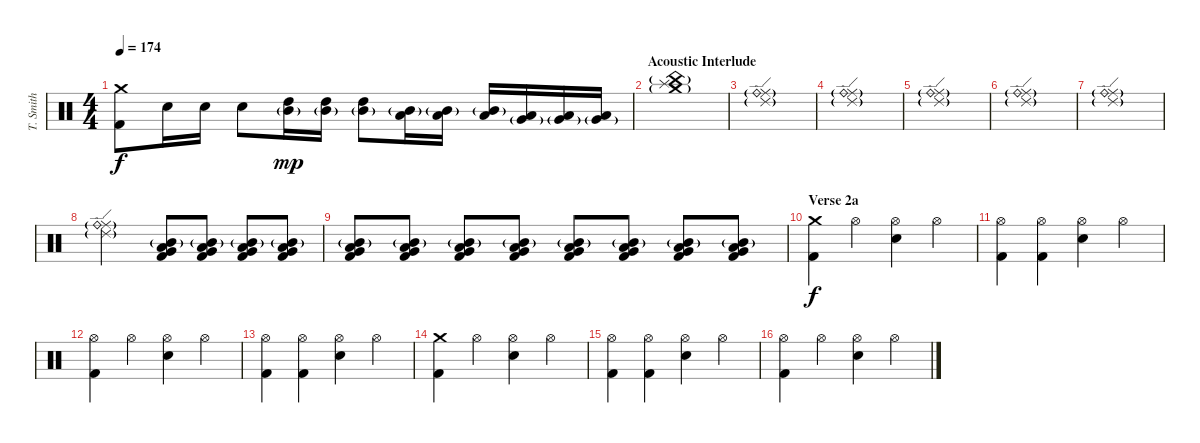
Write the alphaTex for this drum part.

\track ("T. Smith" "T. Smith") {instrument percussion}
\staff {score}
\articulation defaults
\ts (4 4)
\tempo 174
\clef neutral
\ks c
("Crash medium (hit)" "Kick (hit) 2").8{dy f} "Electric Snare (hit)".16 "Electric Snare (hit)".16 "Electric Snare (hit)".8 ("Mid Tom (hit)"{g} "High Tom (hit)").16{dy mp} ("Mid Tom (hit)"{g} "High Tom (hit)").16 ("Mid Tom (hit)"{g} "High Tom (hit)").8 ("Low Tom (hit)" "Mid Tom (hit)"{g}).16 ("Low Tom (hit)" "Mid Tom (hit)"{g}).16 ("Low Tom (hit)" "Mid Tom (hit)"{g}).16 ("Very Low Tom (hit)"{g} "Low Tom (hit)").16 ("Very Low Tom (hit)"{g} "Low Tom (hit)").16 ("Very Low Tom (hit)"{g} "Low Tom (hit)").16 |
\section ("" "Acoustic Interlude")
("Crash medium (hit)"{g} "Splash (hit)" "China (hit)"{g}).1 |
("Ride (middle)"{g} "Ride (bell)" "Ride (edge) 2"{g}).1 |
("Ride (middle)"{g} "Ride (bell)" "Ride (edge) 2"{g}).1 |
("Ride (middle)"{g} "Ride (bell)" "Ride (edge) 2"{g}).1 |
("Ride (middle)"{g} "Ride (bell)" "Ride (edge) 2"{g}).1 |
("Ride (middle)"{g} "Ride (bell)" "Ride (edge) 2"{g}).1 |
("Ride (middle)"{g} "Ride (bell)" "Ride (edge) 2"{g}).2 ("Mid Tom (hit)"{g} "Low Tom (hit)" "Very Low Tom (hit)" "Kick (hit) 2").8{volume 3} ("Mid Tom (hit)"{g} "Low Tom (hit)" "Very Low Tom (hit)" "Kick (hit) 2").8{volume 13} ("Mid Tom (hit)"{g} "Low Tom (hit)" "Very Low Tom (hit)" "Kick (hit) 2").8 ("Mid Tom (hit)"{g} "Low Tom (hit)" "Very Low Tom (hit)" "Kick (hit) 2").8 |
("Mid Tom (hit)"{g} "Low Tom (hit)" "Very Low Tom (hit)" "Kick (hit) 2").8 ("Mid Tom (hit)"{g} "Low Tom (hit)" "Very Low Tom (hit)" "Kick (hit) 2").8 ("Mid Tom (hit)"{g} "Low Tom (hit)" "Very Low Tom (hit)" "Kick (hit) 2").8 ("Mid Tom (hit)"{g} "Low Tom (hit)" "Very Low Tom (hit)" "Kick (hit) 2").8 ("Mid Tom (hit)"{g} "Low Tom (hit)" "Very Low Tom (hit)" "Kick (hit) 2").8 ("Mid Tom (hit)"{g} "Low Tom (hit)" "Very Low Tom (hit)" "Kick (hit) 2").8 ("Mid Tom (hit)"{g} "Low Tom (hit)" "Very Low Tom (hit)" "Kick (hit) 2").8 ("Mid Tom (hit)"{g} "Low Tom (hit)" "Very Low Tom (hit)" "Kick (hit) 2").8 |
\section ("" "Verse 2a")
("Crash medium (hit)" "Kick (hit) 2").4{dy f} "Hi-Hat (open)".4 ("Hi-Hat (open)" "Electric Snare (hit)").4 "Hi-Hat (open)".4 |
("Hi-Hat (open)" "Kick (hit) 2").4 ("Hi-Hat (open)" "Kick (hit) 2").4 ("Hi-Hat (open)" "Electric Snare (hit)").4 "Hi-Hat (open)".4 |
("Hi-Hat (open)" "Kick (hit) 2").4 "Hi-Hat (open)".4 ("Hi-Hat (open)" "Electric Snare (hit)").4 "Hi-Hat (open)".4 |
("Hi-Hat (open)" "Kick (hit) 2").4 ("Hi-Hat (open)" "Kick (hit) 2").4 ("Hi-Hat (open)" "Electric Snare (hit)").4 "Hi-Hat (open)".4 |
("Crash medium (hit)" "Kick (hit) 2").4 "Hi-Hat (open)".4 ("Hi-Hat (open)" "Electric Snare (hit)").4 "Hi-Hat (open)".4 |
("Hi-Hat (open)" "Kick (hit) 2").4 ("Hi-Hat (open)" "Kick (hit) 2").4 ("Hi-Hat (open)" "Electric Snare (hit)").4 "Hi-Hat (open)".4 |
("Hi-Hat (open)" "Kick (hit) 2").4 "Hi-Hat (open)".4 ("Hi-Hat (open)" "Electric Snare (hit)").4 "Hi-Hat (open)".4
